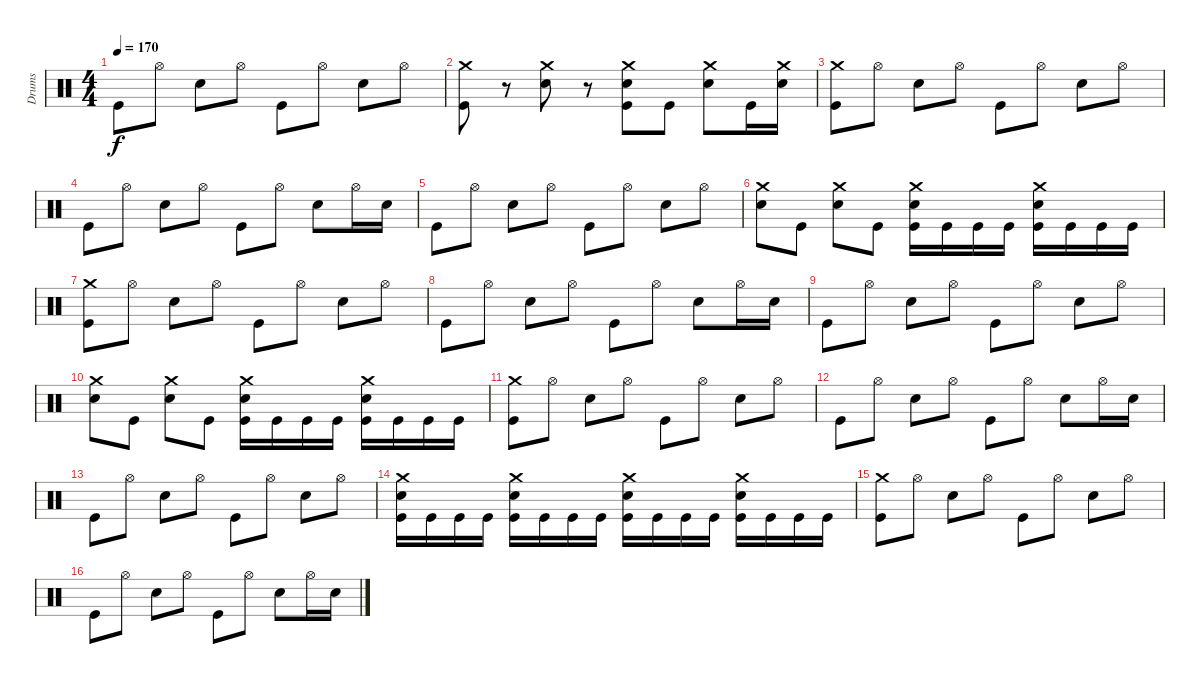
\track ("Drums" "Drums") {instrument percussion}
\staff {score}
\articulation defaults
\ts (4 4)
\tempo 170
\clef neutral
\ks c "Kick (hit)".8{dy f} "Hi-Hat (open)".8 "Electric Snare (hit)".8 "Hi-Hat (open)".8 "Kick (hit)".8 "Hi-Hat (open)".8 "Electric Snare (hit)".8 "Hi-Hat (open)".8
|
("Crash medium (hit)" "Kick (hit)").8 r.8 ("Crash medium (hit)" "Electric Snare (hit)").8 r.8 ("Crash medium (hit)" "Electric Snare (hit)" "Kick (hit)").8 "Kick (hit)".8 ("Crash medium (hit)" "Electric Snare (hit)").8 "Kick (hit)".16 ("Crash medium (hit)" "Electric Snare (hit)").16 |
("Crash medium (hit)" "Kick (hit)").8 "Hi-Hat (open)".8 "Electric Snare (hit)".8 "Hi-Hat (open)".8 "Kick (hit)".8 "Hi-Hat (open)".8 "Electric Snare (hit)".8 "Hi-Hat (open)".8 |
"Kick (hit)".8 "Hi-Hat (open)".8 "Electric Snare (hit)".8 "Hi-Hat (open)".8 "Kick (hit)".8 "Hi-Hat (open)".8 "Electric Snare (hit)".8 "Hi-Hat (open)".16 "Electric Snare (hit)".16 |
"Kick (hit)".8 "Hi-Hat (open)".8 "Electric Snare (hit)".8 "Hi-Hat (open)".8 "Kick (hit)".8 "Hi-Hat (open)".8 "Electric Snare (hit)".8 "Hi-Hat (open)".8 |
("Crash medium (hit)" "Electric Snare (hit)").8 "Kick (hit)".8 ("Crash medium (hit)" "Electric Snare (hit)").8 "Kick (hit)".8 ("Crash medium (hit)" "Electric Snare (hit)" "Kick (hit)").16 "Kick (hit)".16 "Kick (hit)".16 "Kick (hit)".16 ("Crash medium (hit)" "Electric Snare (hit)" "Kick (hit)").16 "Kick (hit)".16 "Kick (hit)".16 "Kick (hit)".16 |
("Crash medium (hit)" "Kick (hit)").8 "Hi-Hat (open)".8 "Electric Snare (hit)".8 "Hi-Hat (open)".8 "Kick (hit)".8 "Hi-Hat (open)".8 "Electric Snare (hit)".8 "Hi-Hat (open)".8 |
"Kick (hit)".8 "Hi-Hat (open)".8 "Electric Snare (hit)".8 "Hi-Hat (open)".8 "Kick (hit)".8 "Hi-Hat (open)".8 "Electric Snare (hit)".8 "Hi-Hat (open)".16 "Electric Snare (hit)".16 |
"Kick (hit)".8 "Hi-Hat (open)".8 "Electric Snare (hit)".8 "Hi-Hat (open)".8 "Kick (hit)".8 "Hi-Hat (open)".8 "Electric Snare (hit)".8 "Hi-Hat (open)".8 |
("Crash medium (hit)" "Electric Snare (hit)").8 "Kick (hit)".8 ("Crash medium (hit)" "Electric Snare (hit)").8 "Kick (hit)".8 ("Crash medium (hit)" "Electric Snare (hit)" "Kick (hit)").16 "Kick (hit)".16 "Kick (hit)".16 "Kick (hit)".16 ("Crash medium (hit)" "Electric Snare (hit)" "Kick (hit)").16 "Kick (hit)".16 "Kick (hit)".16 "Kick (hit)".16 |
("Crash medium (hit)" "Kick (hit)").8 "Hi-Hat (open)".8 "Electric Snare (hit)".8 "Hi-Hat (open)".8 "Kick (hit)".8 "Hi-Hat (open)".8 "Electric Snare (hit)".8 "Hi-Hat (open)".8 |
"Kick (hit)".8 "Hi-Hat (open)".8 "Electric Snare (hit)".8 "Hi-Hat (open)".8 "Kick (hit)".8 "Hi-Hat (open)".8 "Electric Snare (hit)".8 "Hi-Hat (open)".16 "Electric Snare (hit)".16 |
"Kick (hit)".8 "Hi-Hat (open)".8 "Electric Snare (hit)".8 "Hi-Hat (open)".8 "Kick (hit)".8 "Hi-Hat (open)".8 "Electric Snare (hit)".8 "Hi-Hat (open)".8 |
("Crash medium (hit)" "Electric Snare (hit)" "Kick (hit)").16 "Kick (hit)".16 "Kick (hit)".16 "Kick (hit)".16 ("Crash medium (hit)" "Electric Snare (hit)" "Kick (hit)").16 "Kick (hit)".16 "Kick (hit)".16 "Kick (hit)".16 ("Crash medium (hit)" "Electric Snare (hit)" "Kick (hit)").16 "Kick (hit)".16 "Kick (hit)".16 "Kick (hit)".16 ("Crash medium (hit)" "Electric Snare (hit)" "Kick (hit)").16 "Kick (hit)".16 "Kick (hit)".16 "Kick (hit)".16 |
("Crash medium (hit)" "Kick (hit)").8 "Hi-Hat (open)".8 "Electric Snare (hit)".8 "Hi-Hat (open)".8 "Kick (hit)".8 "Hi-Hat (open)".8 "Electric Snare (hit)".8 "Hi-Hat (open)".8 |
"Kick (hit)".8 "Hi-Hat (open)".8 "Electric Snare (hit)".8 "Hi-Hat (open)".8 "Kick (hit)".8 "Hi-Hat (open)".8 "Electric Snare (hit)".8 "Hi-Hat (open)".16 "Electric Snare (hit)".16
